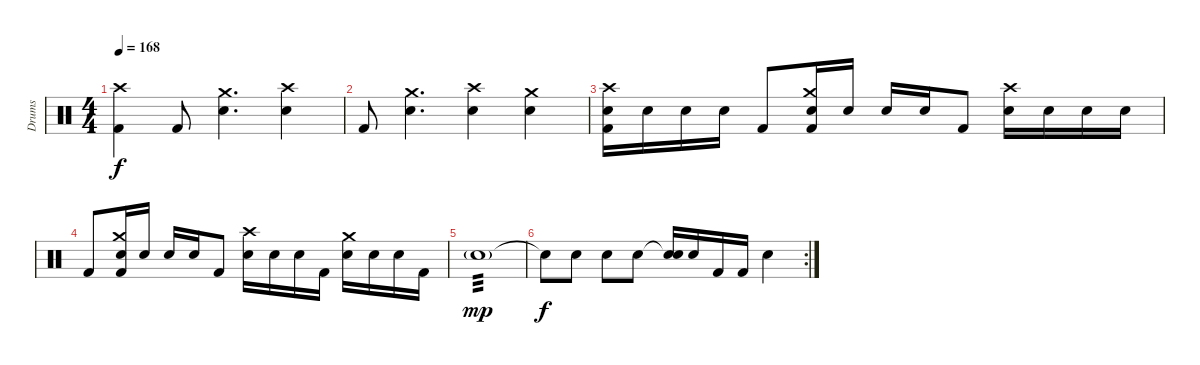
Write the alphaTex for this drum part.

\track ("Drums" "Drums") {instrument percussion}
\staff {score}
\articulation defaults
\ts (4 4)
\tempo 168
\clef neutral
\ks c
("Crash high (hit)" "Kick (hit) 2").4{dy f} "Kick (hit) 2".8 ("Crash medium (hit)" "Snare (hit) 2").4{d} ("Crash high (hit)" "Snare (hit) 2").4 |
"Kick (hit) 2".8 ("Crash medium (hit)" "Snare (hit) 2").4{d} ("Crash high (hit)" "Snare (hit) 2").4 ("Crash medium (hit)" "Snare (hit) 2").4 |
("Crash high (hit)" "Snare (hit) 2" "Kick (hit) 2").16 "Snare (hit) 2".16 "Snare (hit) 2".16 "Snare (hit) 2".16 "Kick (hit) 2".8 ("Crash medium (hit)" "Snare (hit) 2" "Kick (hit) 2").16 "Snare (hit) 2".16 "Snare (hit) 2".16 "Snare (hit) 2".16 "Kick (hit) 2".8 ("Crash high (hit)" "Snare (hit) 2").16 "Snare (hit) 2".16 "Snare (hit) 2".16 "Snare (hit) 2".16 |
"Kick (hit) 2".8 ("Crash medium (hit)" "Snare (hit) 2" "Kick (hit) 2").16 "Snare (hit) 2".16 "Snare (hit) 2".16 "Snare (hit) 2".16 "Kick (hit) 2".8 ("Crash high (hit)" "Snare (hit) 2").16 "Snare (hit) 2".16 "Snare (hit) 2".16 "Kick (hit) 2".16 ("Crash medium (hit)" "Snare (hit) 2").16 "Snare (hit) 2".16 "Snare (hit) 2".16 "Kick (hit) 2".16 |
"Electric Snare (hit)"{g}.1{tp 3 dy mp} |
\rc 2 "Electric Snare (hit)"{t}.8{dy f} "Snare (hit) 2".8 "Snare (hit) 2".8 "Snare (hit) 2".8
("Snare (hit)"{t} "Snare (hit) 2").16 "Snare (hit) 2".16 "Kick (hit) 2".16 "Kick (hit) 2".16 "Snare (hit) 2".4
